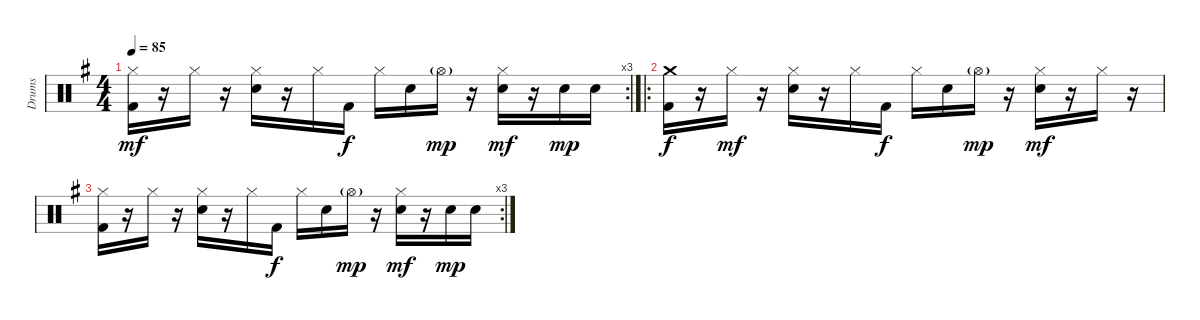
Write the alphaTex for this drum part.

\track ("Drums" "Drums") {instrument percussion}
\staff {score}
\articulation defaults
\rc 3
\ts (4 4)
\tempo 85
\clef neutral
\ks g
("Hi-Hat (closed)" "Kick (hit) 2").16{dy mf} r.16 "Hi-Hat (closed)".16 r.16 ("Hi-Hat (closed)" "Snare (hit) 2").16 r.16 "Hi-Hat (closed)".16 "Kick (hit) 2".16{dy f} "Hi-Hat (closed)".16 "Snare (hit) 2".16 "Hi-Hat (open)"{g}.16{dy mp} r.16 ("Hi-Hat (closed)" "Snare (hit) 2").16{dy mf} r.16 "Snare (hit) 2".16{dy mp} "Snare (hit) 2".16 |
\ro
("Crash medium (hit)" "Kick (hit) 2").16{dy f} r.16 "Hi-Hat (closed)".16{dy mf} r.16 ("Hi-Hat (closed)" "Snare (hit) 2").16 r.16 "Hi-Hat (closed)".16 "Kick (hit) 2".16{dy f} "Hi-Hat (closed)".16 "Snare (hit) 2".16 "Hi-Hat (open)"{g}.16{dy mp} r.16 ("Hi-Hat (closed)" "Snare (hit) 2").16{dy mf} r.16 "Hi-Hat (closed)".16 r.16 |
\rc 3
("Hi-Hat (closed)" "Kick (hit) 2").16 r.16 "Hi-Hat (closed)".16 r.16 ("Hi-Hat (closed)" "Snare (hit) 2").16 r.16 "Hi-Hat (closed)".16 "Kick (hit) 2".16{dy f} "Hi-Hat (closed)".16 "Snare (hit) 2".16 "Hi-Hat (open)"{g}.16{dy mp} r.16 ("Hi-Hat (closed)" "Snare (hit) 2").16{dy mf} r.16 "Snare (hit) 2".16{dy mp} "Snare (hit) 2".16
